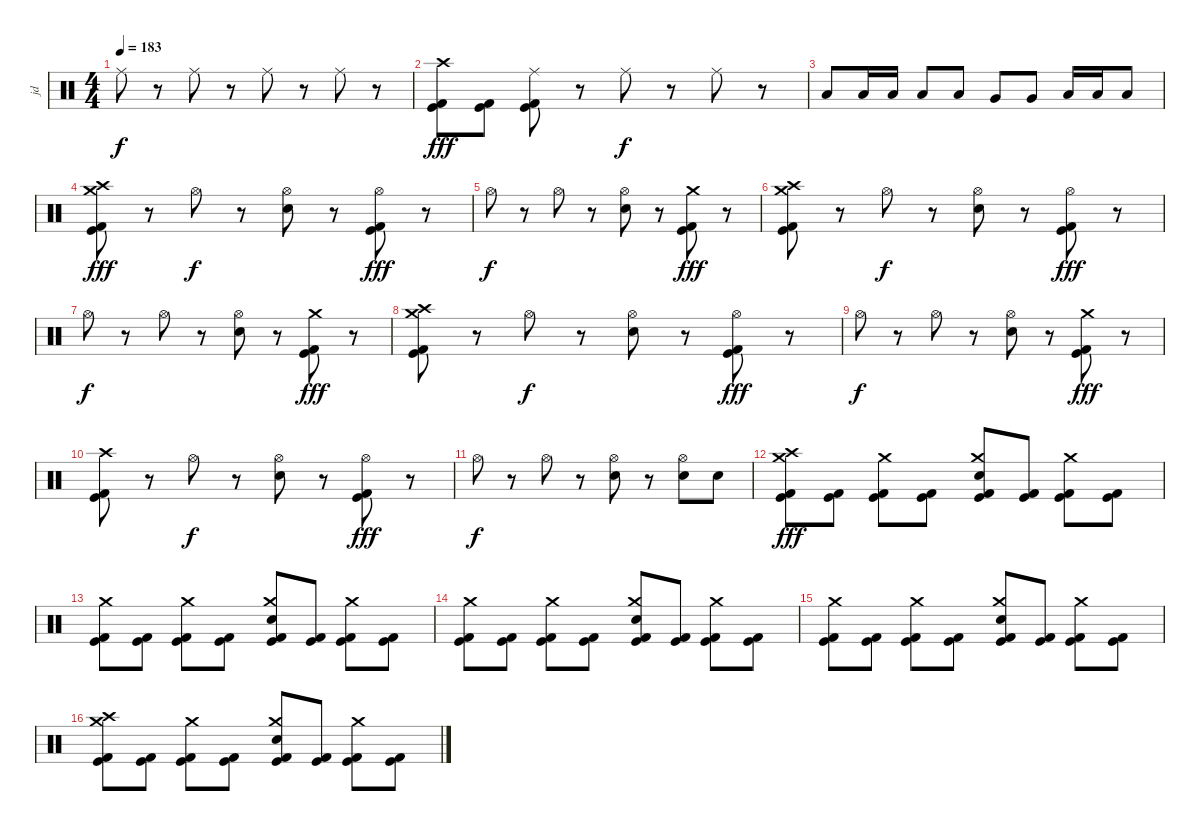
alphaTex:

\track ("jd" "jd") {instrument percussion}
\staff {score}
\articulation defaults
\ts (4 4)
\tempo 183
\clef neutral
\ks c "Ride (middle)".8{dy f}
r.8 "Ride (middle)".8 r.8 "Ride (middle)".8 r.8 "Ride (middle)".8 r.8 |
("Kick (hit)" "Kick (hit) 2" "Crash high (hit)").8{dy fff} ("Kick (hit)" "Kick (hit) 2").8 ("Kick (hit)" "Kick (hit) 2" "Ride (middle)").8 r.8 "Ride (middle)".8{dy f} r.8 "Ride (middle)".8 r.8 |
"Low Tom (hit)".8 "Low Tom (hit)".16 "Low Tom (hit)".16 "Low Tom (hit)".8 "Low Tom (hit)".8 "Very Low Tom (hit)".8 "Very Low Tom (hit)".8 "Low Floor Tom (hit)".16 "Low Floor Tom (hit)".16 "Low Floor Tom (hit)".8 |
("Kick (hit)" "Kick (hit) 2" "Crash high (hit)" "Crash medium (hit)").8{dy fff} r.8 "Hi-Hat (open)".8{dy f} r.8 ("Electric Snare (hit)" "Hi-Hat (open)").8 r.8 ("Kick (hit)" "Kick (hit) 2" "Hi-Hat (open)").8{dy fff} r.8 |
"Hi-Hat (open)".8{dy f} r.8 "Hi-Hat (open)".8 r.8 ("Electric Snare (hit)" "Hi-Hat (open)").8 r.8 ("Kick (hit)" "Kick (hit) 2" "Crash medium (hit)").8{dy fff} r.8 |
("Kick (hit)" "Kick (hit) 2" "Crash high (hit)" "Crash medium (hit)").8 r.8 "Hi-Hat (open)".8{dy f} r.8 ("Electric Snare (hit)" "Hi-Hat (open)").8 r.8 ("Kick (hit)" "Kick (hit) 2" "Hi-Hat (open)").8{dy fff} r.8 |
"Hi-Hat (open)".8{dy f} r.8 "Hi-Hat (open)".8 r.8 ("Electric Snare (hit)" "Hi-Hat (open)").8 r.8 ("Kick (hit)" "Kick (hit) 2" "Crash medium (hit)").8{dy fff} r.8 |
("Kick (hit)" "Kick (hit) 2" "Crash high (hit)" "Crash medium (hit)").8 r.8 "Hi-Hat (open)".8{dy f} r.8 ("Electric Snare (hit)" "Hi-Hat (open)").8 r.8 ("Kick (hit)" "Kick (hit) 2" "Hi-Hat (open)").8{dy fff} r.8 |
"Hi-Hat (open)".8{dy f} r.8 "Hi-Hat (open)".8 r.8 ("Electric Snare (hit)" "Hi-Hat (open)").8 r.8 ("Kick (hit)" "Kick (hit) 2" "Crash medium (hit)").8{dy fff} r.8 |
("Kick (hit)" "Kick (hit) 2" "Crash high (hit)").8 r.8 "Hi-Hat (open)".8{dy f} r.8 ("Electric Snare (hit)" "Hi-Hat (open)").8 r.8 ("Kick (hit)" "Kick (hit) 2" "Hi-Hat (open)").8{dy fff} r.8 |
"Hi-Hat (open)".8{dy f} r.8 "Hi-Hat (open)".8 r.8 ("Electric Snare (hit)" "Hi-Hat (open)").8 r.8 ("Electric Snare (hit)" "Hi-Hat (open)").8 "Electric Snare (hit)".8 |
("Kick (hit)" "Kick (hit) 2" "Crash high (hit)" "Crash medium (hit)").8{dy fff} ("Kick (hit)" "Kick (hit) 2").8 ("Kick (hit)" "Kick (hit) 2" "Crash medium (hit)").8 ("Kick (hit)" "Kick (hit) 2").8 ("Kick (hit)" "Kick (hit) 2" "Electric Snare (hit)" "Crash medium (hit)").8 ("Kick (hit)" "Kick (hit) 2").8 ("Kick (hit)" "Kick (hit) 2" "Crash medium (hit)").8 ("Kick (hit)" "Kick (hit) 2").8 |
("Kick (hit)" "Kick (hit) 2" "Crash medium (hit)").8 ("Kick (hit)" "Kick (hit) 2").8 ("Kick (hit)" "Kick (hit) 2" "Crash medium (hit)").8 ("Kick (hit)" "Kick (hit) 2").8 ("Kick (hit)" "Kick (hit) 2" "Electric Snare (hit)" "Crash medium (hit)").8 ("Kick (hit)" "Kick (hit) 2").8 ("Kick (hit)" "Kick (hit) 2" "Crash medium (hit)").8 ("Kick (hit)" "Kick (hit) 2").8 |
("Kick (hit)" "Kick (hit) 2" "Crash medium (hit)").8 ("Kick (hit)" "Kick (hit) 2").8 ("Kick (hit)" "Kick (hit) 2" "Crash medium (hit)").8 ("Kick (hit)" "Kick (hit) 2").8 ("Kick (hit)" "Kick (hit) 2" "Electric Snare (hit)" "Crash medium (hit)").8 ("Kick (hit)" "Kick (hit) 2").8 ("Kick (hit)" "Kick (hit) 2" "Crash medium (hit)").8 ("Kick (hit)" "Kick (hit) 2").8 |
("Kick (hit)" "Kick (hit) 2" "Crash medium (hit)").8 ("Kick (hit)" "Kick (hit) 2").8 ("Kick (hit)" "Kick (hit) 2" "Crash medium (hit)").8 ("Kick (hit)" "Kick (hit) 2").8 ("Kick (hit)" "Kick (hit) 2" "Electric Snare (hit)" "Crash medium (hit)").8 ("Kick (hit)" "Kick (hit) 2").8 ("Kick (hit)" "Kick (hit) 2" "Crash medium (hit)").8 ("Kick (hit)" "Kick (hit) 2").8 |
("Kick (hit)" "Kick (hit) 2" "Crash high (hit)" "Crash medium (hit)").8 ("Kick (hit)" "Kick (hit) 2").8 ("Kick (hit)" "Kick (hit) 2" "Crash medium (hit)").8 ("Kick (hit)" "Kick (hit) 2").8 ("Kick (hit)" "Kick (hit) 2" "Electric Snare (hit)" "Crash medium (hit)").8 ("Kick (hit)" "Kick (hit) 2").8 ("Kick (hit)" "Kick (hit) 2" "Crash medium (hit)").8 ("Kick (hit)" "Kick (hit) 2").8
